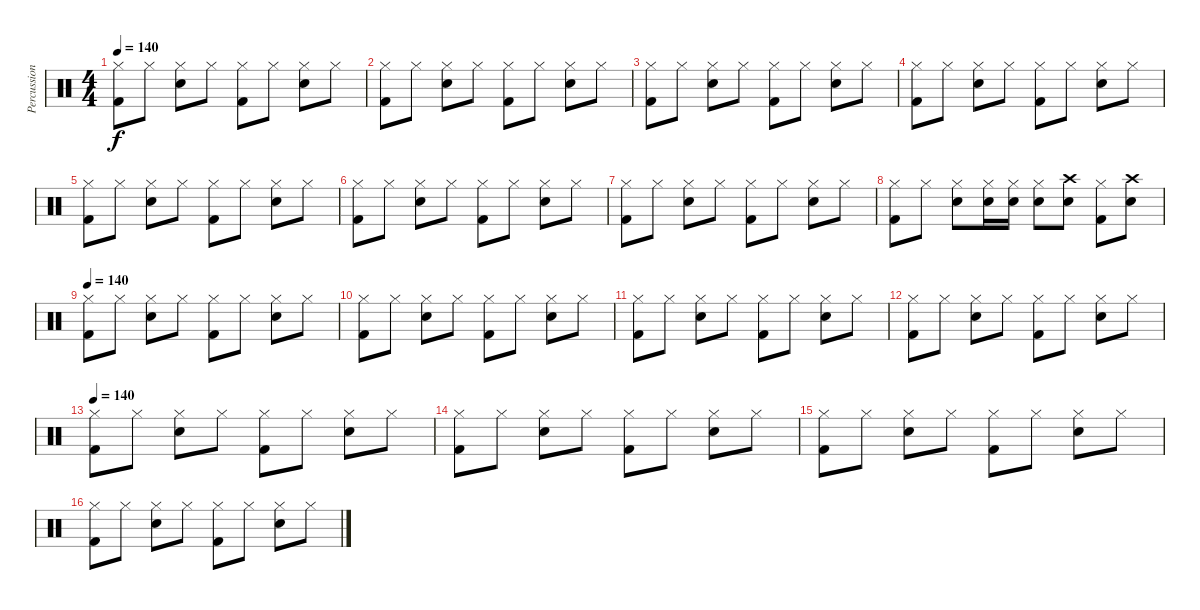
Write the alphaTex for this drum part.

\track ("Percussion" "Percussion") {instrument percussion}
\staff {score}
\articulation defaults
\ts (4 4)
\tempo 140
\clef neutral
\ks c
("Hi-Hat (closed)" "Kick (hit) 2").8{dy f} "Hi-Hat (closed)".8 ("Hi-Hat (closed)" "Snare (hit) 2").8 "Hi-Hat (closed)".8 ("Hi-Hat (closed)" "Kick (hit) 2").8 "Hi-Hat (closed)".8 ("Hi-Hat (closed)" "Snare (hit) 2").8 "Hi-Hat (closed)".8 |
("Hi-Hat (closed)" "Kick (hit) 2").8 "Hi-Hat (closed)".8 ("Hi-Hat (closed)" "Snare (hit) 2").8 "Hi-Hat (closed)".8 ("Hi-Hat (closed)" "Kick (hit) 2").8 "Hi-Hat (closed)".8 ("Hi-Hat (closed)" "Snare (hit) 2").8 "Hi-Hat (closed)".8 |
("Hi-Hat (closed)" "Kick (hit) 2").8 "Hi-Hat (closed)".8 ("Hi-Hat (closed)" "Snare (hit) 2").8 "Hi-Hat (closed)".8 ("Hi-Hat (closed)" "Kick (hit) 2").8 "Hi-Hat (closed)".8 ("Hi-Hat (closed)" "Snare (hit) 2").8 "Hi-Hat (closed)".8 |
("Hi-Hat (closed)" "Kick (hit) 2").8 "Hi-Hat (closed)".8 ("Hi-Hat (closed)" "Snare (hit) 2").8 "Hi-Hat (closed)".8 ("Hi-Hat (closed)" "Kick (hit) 2").8 "Hi-Hat (closed)".8 ("Hi-Hat (closed)" "Snare (hit) 2").8 "Hi-Hat (closed)".8 |
("Hi-Hat (closed)" "Kick (hit) 2").8 "Hi-Hat (closed)".8 ("Hi-Hat (closed)" "Snare (hit) 2").8 "Hi-Hat (closed)".8 ("Hi-Hat (closed)" "Kick (hit) 2").8 "Hi-Hat (closed)".8 ("Hi-Hat (closed)" "Snare (hit) 2").8 "Hi-Hat (closed)".8 |
("Hi-Hat (closed)" "Kick (hit) 2").8 "Hi-Hat (closed)".8 ("Hi-Hat (closed)" "Snare (hit) 2").8 "Hi-Hat (closed)".8 ("Hi-Hat (closed)" "Kick (hit) 2").8 "Hi-Hat (closed)".8 ("Hi-Hat (closed)" "Snare (hit) 2").8 "Hi-Hat (closed)".8 |
("Hi-Hat (closed)" "Kick (hit) 2").8 "Hi-Hat (closed)".8 ("Hi-Hat (closed)" "Snare (hit) 2").8 "Hi-Hat (closed)".8 ("Hi-Hat (closed)" "Kick (hit) 2").8 "Hi-Hat (closed)".8 ("Hi-Hat (closed)" "Snare (hit) 2").8 "Hi-Hat (closed)".8 |
("Hi-Hat (closed)" "Kick (hit) 2").8 "Hi-Hat (closed)".8 ("Hi-Hat (closed)" "Snare (hit) 2").8 ("Hi-Hat (closed)" "Snare (hit) 2").16 ("Hi-Hat (closed)" "Snare (hit) 2").16 ("Hi-Hat (closed)" "Snare (hit) 2").8 ("Crash high (hit)" "Snare (hit) 2").8 ("Hi-Hat (closed)" "Kick (hit) 2").8 ("Crash high (hit)" "Snare (hit) 2").8 |
\tempo 140
("Hi-Hat (closed)" "Kick (hit) 2").8 "Hi-Hat (closed)".8 ("Hi-Hat (closed)" "Snare (hit) 2").8 "Hi-Hat (closed)".8 ("Hi-Hat (closed)" "Kick (hit) 2").8 "Hi-Hat (closed)".8 ("Hi-Hat (closed)" "Snare (hit) 2").8 "Hi-Hat (closed)".8 |
("Hi-Hat (closed)" "Kick (hit) 2").8 "Hi-Hat (closed)".8 ("Hi-Hat (closed)" "Snare (hit) 2").8 "Hi-Hat (closed)".8 ("Hi-Hat (closed)" "Kick (hit) 2").8 "Hi-Hat (closed)".8 ("Hi-Hat (closed)" "Snare (hit) 2").8 "Hi-Hat (closed)".8 |
("Hi-Hat (closed)" "Kick (hit) 2").8 "Hi-Hat (closed)".8 ("Hi-Hat (closed)" "Snare (hit) 2").8 "Hi-Hat (closed)".8 ("Hi-Hat (closed)" "Kick (hit) 2").8 "Hi-Hat (closed)".8 ("Hi-Hat (closed)" "Snare (hit) 2").8 "Hi-Hat (closed)".8 |
("Hi-Hat (closed)" "Kick (hit) 2").8 "Hi-Hat (closed)".8 ("Hi-Hat (closed)" "Snare (hit) 2").8 "Hi-Hat (closed)".8 ("Hi-Hat (closed)" "Kick (hit) 2").8 "Hi-Hat (closed)".8 ("Hi-Hat (closed)" "Snare (hit) 2").8 "Hi-Hat (closed)".8 |
\tempo 140
("Hi-Hat (closed)" "Kick (hit) 2").8 "Hi-Hat (closed)".8 ("Hi-Hat (closed)" "Snare (hit) 2").8 "Hi-Hat (closed)".8 ("Hi-Hat (closed)" "Kick (hit) 2").8 "Hi-Hat (closed)".8 ("Hi-Hat (closed)" "Snare (hit) 2").8 "Hi-Hat (closed)".8 |
("Hi-Hat (closed)" "Kick (hit) 2").8 "Hi-Hat (closed)".8 ("Hi-Hat (closed)" "Snare (hit) 2").8 "Hi-Hat (closed)".8 ("Hi-Hat (closed)" "Kick (hit) 2").8 "Hi-Hat (closed)".8 ("Hi-Hat (closed)" "Snare (hit) 2").8 "Hi-Hat (closed)".8 |
("Hi-Hat (closed)" "Kick (hit) 2").8 "Hi-Hat (closed)".8 ("Hi-Hat (closed)" "Snare (hit) 2").8 "Hi-Hat (closed)".8 ("Hi-Hat (closed)" "Kick (hit) 2").8 "Hi-Hat (closed)".8 ("Hi-Hat (closed)" "Snare (hit) 2").8 "Hi-Hat (closed)".8 |
("Hi-Hat (closed)" "Kick (hit) 2").8 "Hi-Hat (closed)".8 ("Hi-Hat (closed)" "Snare (hit) 2").8 "Hi-Hat (closed)".8 ("Hi-Hat (closed)" "Kick (hit) 2").8 "Hi-Hat (closed)".8 ("Hi-Hat (closed)" "Snare (hit) 2").8 "Hi-Hat (closed)".8
